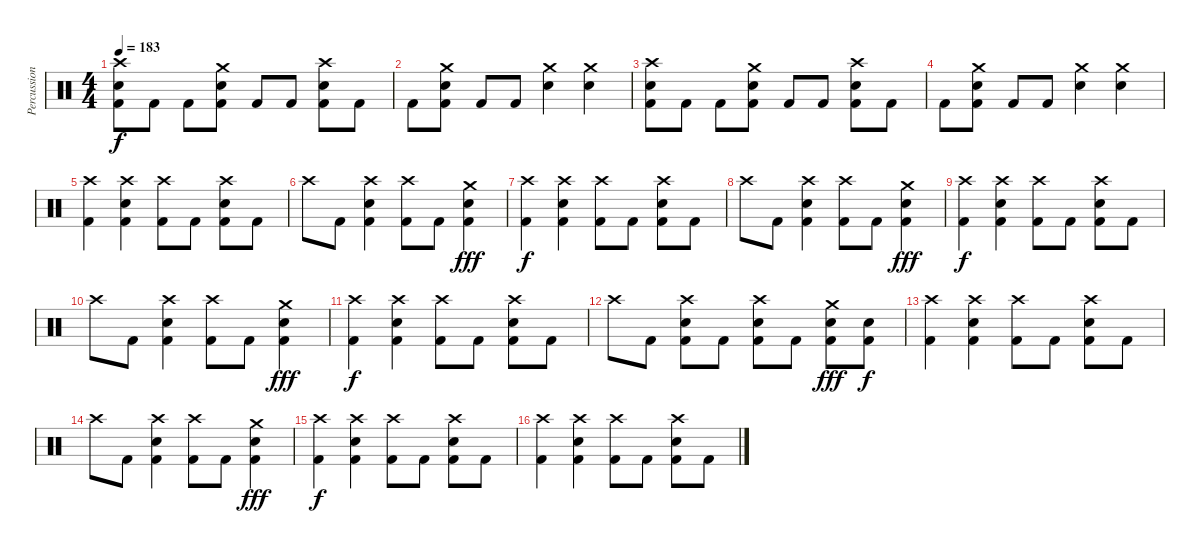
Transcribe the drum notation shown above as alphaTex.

\track ("Percussion" "Percussion") {instrument percussion}
\staff {score}
\articulation defaults
\ts (4 4)
\tempo 183
\clef neutral
\ks aminor
("Crash high (hit)" "Electric Snare (hit)" "Kick (hit) 2").8{dy f} "Kick (hit) 2".8 "Kick (hit) 2".8 ("Crash medium (hit)" "Electric Snare (hit)" "Kick (hit) 2").8 "Kick (hit) 2".8 "Kick (hit) 2".8 ("Crash high (hit)" "Electric Snare (hit)" "Kick (hit) 2").8 "Kick (hit) 2".8 |
"Kick (hit) 2".8 ("Crash medium (hit)" "Electric Snare (hit)" "Kick (hit) 2").8 "Kick (hit) 2".8 "Kick (hit) 2".8 ("Crash medium (hit)" "Electric Snare (hit)").4 ("Crash medium (hit)" "Electric Snare (hit)").4 |
("Crash high (hit)" "Electric Snare (hit)" "Kick (hit) 2").8 "Kick (hit) 2".8 "Kick (hit) 2".8 ("Crash medium (hit)" "Electric Snare (hit)" "Kick (hit) 2").8 "Kick (hit) 2".8 "Kick (hit) 2".8 ("Crash high (hit)" "Electric Snare (hit)" "Kick (hit) 2").8 "Kick (hit) 2".8 |
"Kick (hit) 2".8 ("Crash medium (hit)" "Electric Snare (hit)" "Kick (hit) 2").8 "Kick (hit) 2".8 "Kick (hit) 2".8 ("Crash medium (hit)" "Electric Snare (hit)").4 ("Crash medium (hit)" "Electric Snare (hit)").4 |
("Crash high (hit)" "Kick (hit) 2").4 ("Crash high (hit)" "Electric Snare (hit)" "Kick (hit) 2").4 ("Crash high (hit)" "Kick (hit) 2").8 "Kick (hit) 2".8 ("Crash high (hit)" "Electric Snare (hit)" "Kick (hit) 2").8 "Kick (hit) 2".8 |
"Crash high (hit)".8 "Kick (hit) 2".8 ("Crash high (hit)" "Electric Snare (hit)" "Kick (hit) 2").4 ("Crash high (hit)" "Kick (hit) 2").8 "Kick (hit) 2".8 ("Crash medium (hit)" "Electric Snare (hit)" "Kick (hit) 2").4{dy fff} |
("Crash high (hit)" "Kick (hit) 2").4{dy f} ("Crash high (hit)" "Electric Snare (hit)" "Kick (hit) 2").4 ("Crash high (hit)" "Kick (hit) 2").8 "Kick (hit) 2".8 ("Crash high (hit)" "Electric Snare (hit)" "Kick (hit) 2").8 "Kick (hit) 2".8 |
"Crash high (hit)".8 "Kick (hit) 2".8 ("Crash high (hit)" "Electric Snare (hit)" "Kick (hit) 2").4 ("Crash high (hit)" "Kick (hit) 2").8 "Kick (hit) 2".8 ("Crash medium (hit)" "Electric Snare (hit)" "Kick (hit) 2").4{dy fff} |
("Crash high (hit)" "Kick (hit) 2").4{dy f} ("Crash high (hit)" "Electric Snare (hit)" "Kick (hit) 2").4 ("Crash high (hit)" "Kick (hit) 2").8 "Kick (hit) 2".8 ("Crash high (hit)" "Electric Snare (hit)" "Kick (hit) 2").8 "Kick (hit) 2".8 |
"Crash high (hit)".8 "Kick (hit) 2".8 ("Crash high (hit)" "Electric Snare (hit)" "Kick (hit) 2").4 ("Crash high (hit)" "Kick (hit) 2").8 "Kick (hit) 2".8 ("Crash medium (hit)" "Electric Snare (hit)" "Kick (hit) 2").4{dy fff} |
("Crash high (hit)" "Kick (hit) 2").4{dy f} ("Crash high (hit)" "Electric Snare (hit)" "Kick (hit) 2").4 ("Crash high (hit)" "Kick (hit) 2").8 "Kick (hit) 2".8 ("Crash high (hit)" "Electric Snare (hit)" "Kick (hit) 2").8 "Kick (hit) 2".8 |
"Crash high (hit)".8 "Kick (hit) 2".8 ("Crash high (hit)" "Electric Snare (hit)" "Kick (hit) 2").8 "Kick (hit) 2".8 ("Crash high (hit)" "Electric Snare (hit)" "Kick (hit) 2").8 "Kick (hit) 2".8 ("Crash medium (hit)" "Electric Snare (hit)" "Kick (hit) 2").8{dy fff} ("Electric Snare (hit)" "Kick (hit) 2").8{dy f} |
("Crash high (hit)" "Kick (hit) 2").4 ("Crash high (hit)" "Electric Snare (hit)" "Kick (hit) 2").4 ("Crash high (hit)" "Kick (hit) 2").8 "Kick (hit) 2".8 ("Crash high (hit)" "Electric Snare (hit)" "Kick (hit) 2").8 "Kick (hit) 2".8 |
"Crash high (hit)".8 "Kick (hit) 2".8 ("Crash high (hit)" "Electric Snare (hit)" "Kick (hit) 2").4 ("Crash high (hit)" "Kick (hit) 2").8 "Kick (hit) 2".8 ("Crash medium (hit)" "Electric Snare (hit)" "Kick (hit) 2").4{dy fff} |
("Crash high (hit)" "Kick (hit) 2").4{dy f} ("Crash high (hit)" "Electric Snare (hit)" "Kick (hit) 2").4 ("Crash high (hit)" "Kick (hit) 2").8 "Kick (hit) 2".8 ("Crash high (hit)" "Electric Snare (hit)" "Kick (hit) 2").8 "Kick (hit) 2".8 |
("Crash high (hit)" "Kick (hit) 2").4 ("Crash high (hit)" "Electric Snare (hit)" "Kick (hit) 2").4 ("Crash high (hit)" "Kick (hit) 2").8 "Kick (hit) 2".8 ("Crash high (hit)" "Electric Snare (hit)" "Kick (hit) 2").8 "Kick (hit) 2".8
